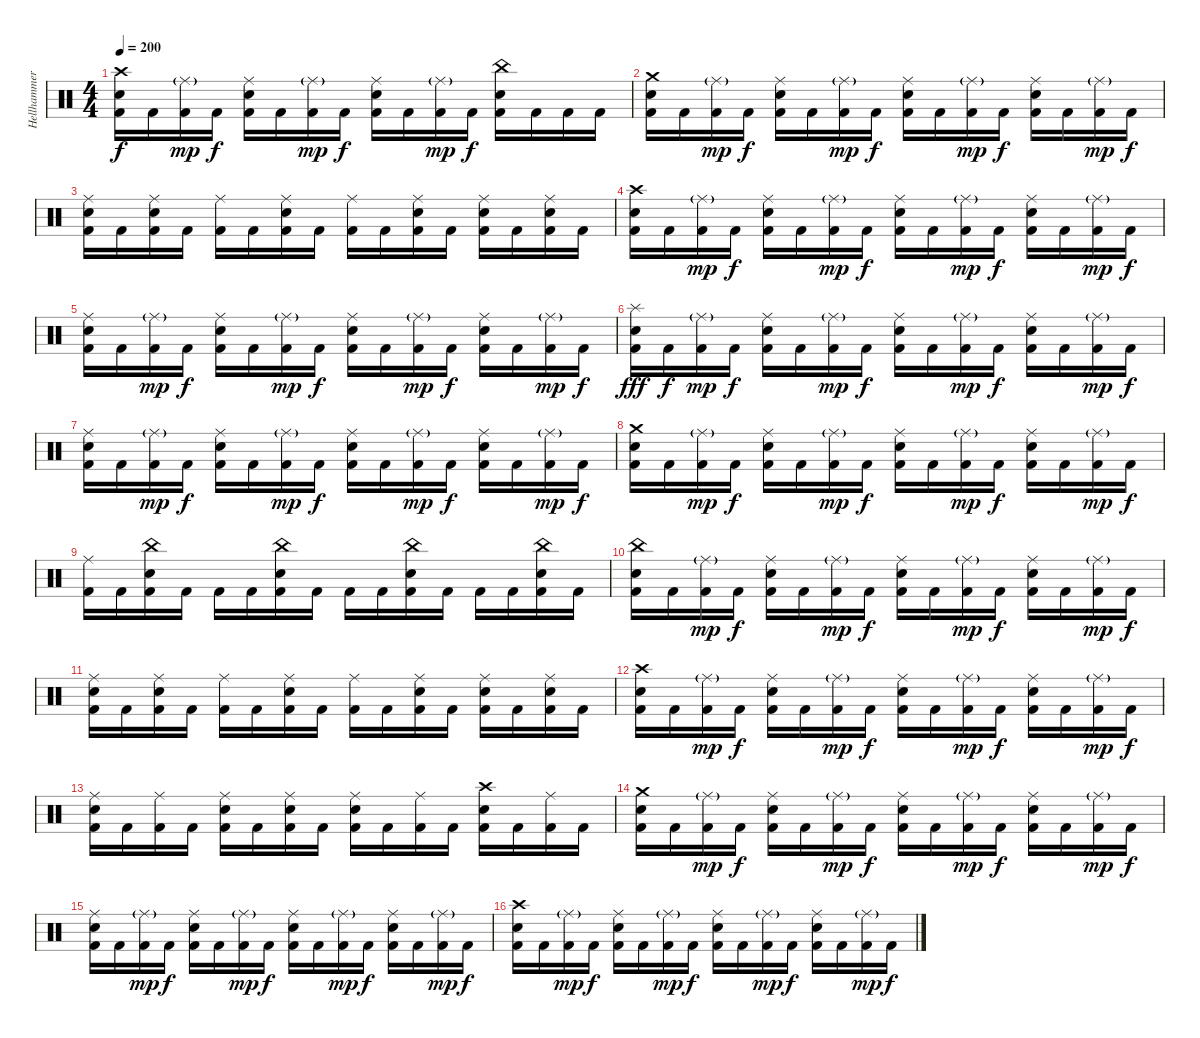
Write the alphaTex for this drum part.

\track ("Hellhammer" "Hellhammer") {instrument percussion}
\staff {score}
\articulation defaults
\ts (4 4)
\tempo 200
\clef neutral
\ks c
("Kick (hit) 2" "Electric Snare (hit)" "Crash high (hit)").16{dy f} "Kick (hit) 2".16 ("Kick (hit) 2" "Ride (middle)"{g}).16{dy mp} "Kick (hit) 2".16{dy f} ("Kick (hit) 2" "Electric Snare (hit)" "Ride (middle)").16 "Kick (hit) 2".16 ("Kick (hit) 2" "Ride (middle)"{g}).16{dy mp} "Kick (hit) 2".16{dy f} ("Kick (hit) 2" "Electric Snare (hit)" "Ride (middle)").16 "Kick (hit) 2".16 ("Kick (hit) 2" "Ride (middle)"{g}).16{dy mp} "Kick (hit) 2".16{dy f} ("Kick (hit) 2" "Electric Snare (hit)" "China (hit)").16 "Kick (hit) 2".16 "Kick (hit) 2".16 "Kick (hit) 2".16 |
("Kick (hit) 2" "Electric Snare (hit)" "Crash medium (hit)").16 "Kick (hit) 2".16 ("Kick (hit) 2" "Ride (middle)"{g}).16{dy mp} "Kick (hit) 2".16{dy f} ("Kick (hit) 2" "Electric Snare (hit)" "Ride (middle)").16 "Kick (hit) 2".16 ("Kick (hit) 2" "Ride (middle)"{g}).16{dy mp} "Kick (hit) 2".16{dy f} ("Kick (hit) 2" "Electric Snare (hit)" "Ride (middle)").16 "Kick (hit) 2".16 ("Kick (hit) 2" "Ride (middle)"{g}).16{dy mp} "Kick (hit) 2".16{dy f} ("Kick (hit) 2" "Electric Snare (hit)" "Ride (middle)").16 "Kick (hit) 2".16 ("Kick (hit) 2" "Ride (middle)"{g}).16{dy mp} "Kick (hit) 2".16{dy f} |
("Kick (hit) 2" "Electric Snare (hit)" "Ride (middle)").16 "Kick (hit) 2".16 ("Kick (hit) 2" "Electric Snare (hit)" "Ride (middle)").16 "Kick (hit) 2".16 ("Kick (hit) 2" "Ride (middle)").16 "Kick (hit) 2".16 ("Kick (hit) 2" "Electric Snare (hit)" "Ride (middle)").16 "Kick (hit) 2".16 ("Kick (hit) 2" "Ride (middle)").16 "Kick (hit) 2".16 ("Kick (hit) 2" "Electric Snare (hit)" "Ride (middle)").16 "Kick (hit) 2".16 ("Kick (hit) 2" "Electric Snare (hit)" "Ride (middle)").16 "Kick (hit) 2".16 ("Kick (hit) 2" "Electric Snare (hit)" "Ride (middle)").16 "Kick (hit) 2".16 |
("Kick (hit) 2" "Electric Snare (hit)" "Crash high (hit)").16 "Kick (hit) 2".16 ("Kick (hit) 2" "Ride (middle)"{g}).16{dy mp} "Kick (hit) 2".16{dy f} ("Kick (hit) 2" "Electric Snare (hit)" "Ride (middle)").16 "Kick (hit) 2".16 ("Kick (hit) 2" "Ride (middle)"{g}).16{dy mp} "Kick (hit) 2".16{dy f} ("Kick (hit) 2" "Electric Snare (hit)" "Ride (middle)").16 "Kick (hit) 2".16 ("Kick (hit) 2" "Ride (middle)"{g}).16{dy mp} "Kick (hit) 2".16{dy f} ("Kick (hit) 2" "Electric Snare (hit)" "Ride (middle)").16 "Kick (hit) 2".16 ("Kick (hit) 2" "Ride (middle)"{g}).16{dy mp} "Kick (hit) 2".16{dy f} |
("Kick (hit) 2" "Electric Snare (hit)" "Ride (middle)").16 "Kick (hit) 2".16 ("Kick (hit) 2" "Ride (middle)"{g}).16{dy mp} "Kick (hit) 2".16{dy f} ("Kick (hit) 2" "Electric Snare (hit)" "Ride (middle)").16 "Kick (hit) 2".16 ("Kick (hit) 2" "Ride (middle)"{g}).16{dy mp} "Kick (hit) 2".16{dy f} ("Kick (hit) 2" "Electric Snare (hit)" "Ride (middle)").16 "Kick (hit) 2".16 ("Kick (hit) 2" "Ride (middle)"{g}).16{dy mp} "Kick (hit) 2".16{dy f} ("Kick (hit) 2" "Electric Snare (hit)" "Ride (middle)").16 "Kick (hit) 2".16 ("Kick (hit) 2" "Ride (middle)"{g}).16{dy mp} "Kick (hit) 2".16{dy f} |
("Kick (hit) 2" "Electric Snare (hit)" "Splash (hit)").16{dy fff} "Kick (hit) 2".16{dy f} ("Kick (hit) 2" "Ride (middle)"{g}).16{dy mp} "Kick (hit) 2".16{dy f} ("Kick (hit) 2" "Electric Snare (hit)" "Ride (middle)").16 "Kick (hit) 2".16 ("Kick (hit) 2" "Ride (middle)"{g}).16{dy mp} "Kick (hit) 2".16{dy f} ("Kick (hit) 2" "Electric Snare (hit)" "Ride (middle)").16 "Kick (hit) 2".16 ("Kick (hit) 2" "Ride (middle)"{g}).16{dy mp} "Kick (hit) 2".16{dy f} ("Kick (hit) 2" "Electric Snare (hit)" "Ride (middle)").16 "Kick (hit) 2".16 ("Kick (hit) 2" "Ride (middle)"{g}).16{dy mp} "Kick (hit) 2".16{dy f} |
("Kick (hit) 2" "Electric Snare (hit)" "Ride (middle)").16 "Kick (hit) 2".16 ("Kick (hit) 2" "Ride (middle)"{g}).16{dy mp} "Kick (hit) 2".16{dy f} ("Kick (hit) 2" "Electric Snare (hit)" "Ride (middle)").16 "Kick (hit) 2".16 ("Kick (hit) 2" "Ride (middle)"{g}).16{dy mp} "Kick (hit) 2".16{dy f} ("Kick (hit) 2" "Electric Snare (hit)" "Ride (middle)").16 "Kick (hit) 2".16 ("Kick (hit) 2" "Ride (middle)"{g}).16{dy mp} "Kick (hit) 2".16{dy f} ("Kick (hit) 2" "Electric Snare (hit)" "Ride (middle)").16 "Kick (hit) 2".16 ("Kick (hit) 2" "Ride (middle)"{g}).16{dy mp} "Kick (hit) 2".16{dy f} |
("Kick (hit) 2" "Electric Snare (hit)" "Crash medium (hit)").16 "Kick (hit) 2".16 ("Kick (hit) 2" "Ride (middle)"{g}).16{dy mp} "Kick (hit) 2".16{dy f} ("Kick (hit) 2" "Electric Snare (hit)" "Ride (middle)").16 "Kick (hit) 2".16 ("Kick (hit) 2" "Ride (middle)"{g}).16{dy mp} "Kick (hit) 2".16{dy f} ("Kick (hit) 2" "Electric Snare (hit)" "Ride (middle)").16 "Kick (hit) 2".16 ("Kick (hit) 2" "Ride (middle)"{g}).16{dy mp} "Kick (hit) 2".16{dy f} ("Kick (hit) 2" "Electric Snare (hit)" "Ride (middle)").16 "Kick (hit) 2".16 ("Kick (hit) 2" "Ride (middle)"{g}).16{dy mp} "Kick (hit) 2".16{dy f} |
("Kick (hit) 2" "Ride (middle)").16 "Kick (hit) 2".16 ("Kick (hit) 2" "Electric Snare (hit)" "China (hit)").16 "Kick (hit) 2".16 "Kick (hit) 2".16 "Kick (hit) 2".16 ("Kick (hit) 2" "Electric Snare (hit)" "China (hit)").16 "Kick (hit) 2".16 "Kick (hit) 2".16 "Kick (hit) 2".16 ("Kick (hit) 2" "Electric Snare (hit)" "China (hit)").16 "Kick (hit) 2".16 "Kick (hit) 2".16 "Kick (hit) 2".16 ("Kick (hit) 2" "Electric Snare (hit)" "China (hit)").16 "Kick (hit) 2".16 |
("Kick (hit) 2" "Electric Snare (hit)" "China (hit)").16 "Kick (hit) 2".16 ("Kick (hit) 2" "Ride (middle)"{g}).16{dy mp} "Kick (hit) 2".16{dy f} ("Kick (hit) 2" "Electric Snare (hit)" "Ride (middle)").16 "Kick (hit) 2".16 ("Kick (hit) 2" "Ride (middle)"{g}).16{dy mp} "Kick (hit) 2".16{dy f} ("Kick (hit) 2" "Electric Snare (hit)" "Ride (middle)").16 "Kick (hit) 2".16 ("Kick (hit) 2" "Ride (middle)"{g}).16{dy mp} "Kick (hit) 2".16{dy f} ("Kick (hit) 2" "Electric Snare (hit)" "Ride (middle)").16 "Kick (hit) 2".16 ("Kick (hit) 2" "Ride (middle)"{g}).16{dy mp} "Kick (hit) 2".16{dy f} |
("Kick (hit) 2" "Electric Snare (hit)" "Ride (middle)").16 "Kick (hit) 2".16 ("Kick (hit) 2" "Electric Snare (hit)" "Ride (middle)").16 "Kick (hit) 2".16 ("Kick (hit) 2" "Ride (middle)").16 "Kick (hit) 2".16 ("Kick (hit) 2" "Electric Snare (hit)" "Ride (middle)").16 "Kick (hit) 2".16 ("Kick (hit) 2" "Ride (middle)").16 "Kick (hit) 2".16 ("Kick (hit) 2" "Electric Snare (hit)" "Ride (middle)").16 "Kick (hit) 2".16 ("Kick (hit) 2" "Electric Snare (hit)" "Ride (middle)").16 "Kick (hit) 2".16 ("Kick (hit) 2" "Electric Snare (hit)" "Ride (middle)").16 "Kick (hit) 2".16 |
("Kick (hit) 2" "Electric Snare (hit)" "Crash high (hit)").16 "Kick (hit) 2".16 ("Kick (hit) 2" "Ride (middle)"{g}).16{dy mp} "Kick (hit) 2".16{dy f} ("Kick (hit) 2" "Electric Snare (hit)" "Ride (middle)").16 "Kick (hit) 2".16 ("Kick (hit) 2" "Ride (middle)"{g}).16{dy mp} "Kick (hit) 2".16{dy f} ("Kick (hit) 2" "Electric Snare (hit)" "Ride (middle)").16 "Kick (hit) 2".16 ("Kick (hit) 2" "Ride (middle)"{g}).16{dy mp} "Kick (hit) 2".16{dy f} ("Kick (hit) 2" "Electric Snare (hit)" "Ride (middle)").16 "Kick (hit) 2".16 ("Kick (hit) 2" "Ride (middle)"{g}).16{dy mp} "Kick (hit) 2".16{dy f} |
("Kick (hit) 2" "Electric Snare (hit)" "Ride (middle)").16 "Kick (hit) 2".16 ("Kick (hit) 2" "Ride (middle)").16 "Kick (hit) 2".16 ("Kick (hit) 2" "Electric Snare (hit)" "Ride (middle)").16 "Kick (hit) 2".16 ("Kick (hit) 2" "Electric Snare (hit)" "Ride (middle)").16 "Kick (hit) 2".16 ("Kick (hit) 2" "Electric Snare (hit)" "Ride (middle)").16 "Kick (hit) 2".16 ("Kick (hit) 2" "Ride (middle)").16 "Kick (hit) 2".16 ("Kick (hit) 2" "Electric Snare (hit)" "Crash high (hit)").16 "Kick (hit) 2".16 ("Kick (hit) 2" "Ride (middle)").16 "Kick (hit) 2".16 |
("Kick (hit) 2" "Electric Snare (hit)" "Crash medium (hit)").16 "Kick (hit) 2".16 ("Kick (hit) 2" "Ride (middle)"{g}).16{dy mp} "Kick (hit) 2".16{dy f} ("Kick (hit) 2" "Electric Snare (hit)" "Ride (middle)").16 "Kick (hit) 2".16 ("Kick (hit) 2" "Ride (middle)"{g}).16{dy mp} "Kick (hit) 2".16{dy f} ("Kick (hit) 2" "Electric Snare (hit)" "Ride (middle)").16 "Kick (hit) 2".16 ("Kick (hit) 2" "Ride (middle)"{g}).16{dy mp} "Kick (hit) 2".16{dy f} ("Kick (hit) 2" "Electric Snare (hit)" "Ride (middle)").16 "Kick (hit) 2".16 ("Kick (hit) 2" "Ride (middle)"{g}).16{dy mp} "Kick (hit) 2".16{dy f} |
("Kick (hit) 2" "Electric Snare (hit)" "Ride (middle)").16 "Kick (hit) 2".16 ("Kick (hit) 2" "Ride (middle)"{g}).16{dy mp} "Kick (hit) 2".16{dy f} ("Kick (hit) 2" "Electric Snare (hit)" "Ride (middle)").16 "Kick (hit) 2".16 ("Kick (hit) 2" "Ride (middle)"{g}).16{dy mp} "Kick (hit) 2".16{dy f} ("Kick (hit) 2" "Electric Snare (hit)" "Ride (middle)").16 "Kick (hit) 2".16 ("Kick (hit) 2" "Ride (middle)"{g}).16{dy mp} "Kick (hit) 2".16{dy f} ("Kick (hit) 2" "Electric Snare (hit)" "Ride (middle)").16 "Kick (hit) 2".16 ("Kick (hit) 2" "Ride (middle)"{g}).16{dy mp} "Kick (hit) 2".16{dy f} |
("Kick (hit) 2" "Electric Snare (hit)" "Crash high (hit)").16 "Kick (hit) 2".16 ("Kick (hit) 2" "Ride (middle)"{g}).16{dy mp} "Kick (hit) 2".16{dy f} ("Kick (hit) 2" "Electric Snare (hit)" "Ride (middle)").16 "Kick (hit) 2".16 ("Kick (hit) 2" "Ride (middle)"{g}).16{dy mp} "Kick (hit) 2".16{dy f} ("Kick (hit) 2" "Electric Snare (hit)" "Ride (middle)").16 "Kick (hit) 2".16 ("Kick (hit) 2" "Ride (middle)"{g}).16{dy mp} "Kick (hit) 2".16{dy f} ("Kick (hit) 2" "Electric Snare (hit)" "Ride (middle)").16 "Kick (hit) 2".16 ("Kick (hit) 2" "Ride (middle)"{g}).16{dy mp} "Kick (hit) 2".16{dy f}
